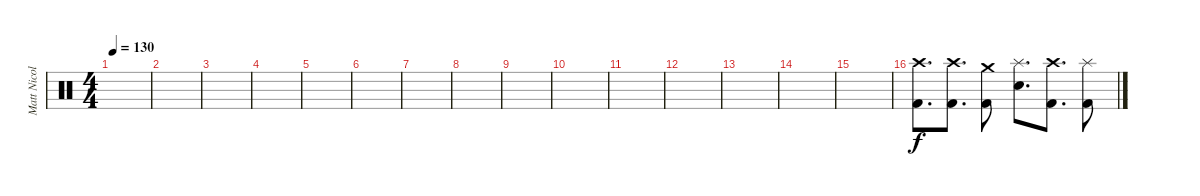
\track ("Matt Nicols" "Matt Nicol") {instrument percussion}
\staff {score}
\articulation defaults
\ts (4 4)
\tempo 130
\clef neutral
\ks c
|
|
|
|
|
|
|
|
|
|
|
|
|
|
|
("Crash high (hit)" "Kick (hit) 2").8{d} ("Crash high (hit)" "Kick (hit) 2").8{d} ("Crash medium (hit)" "Kick (hit) 2").8 ("Splash (hit)" "Snare (hit) 2").8{d} ("Kick (hit) 2" "Crash high (hit)").8{d} ("Splash (hit)" "Kick (hit) 2").8
